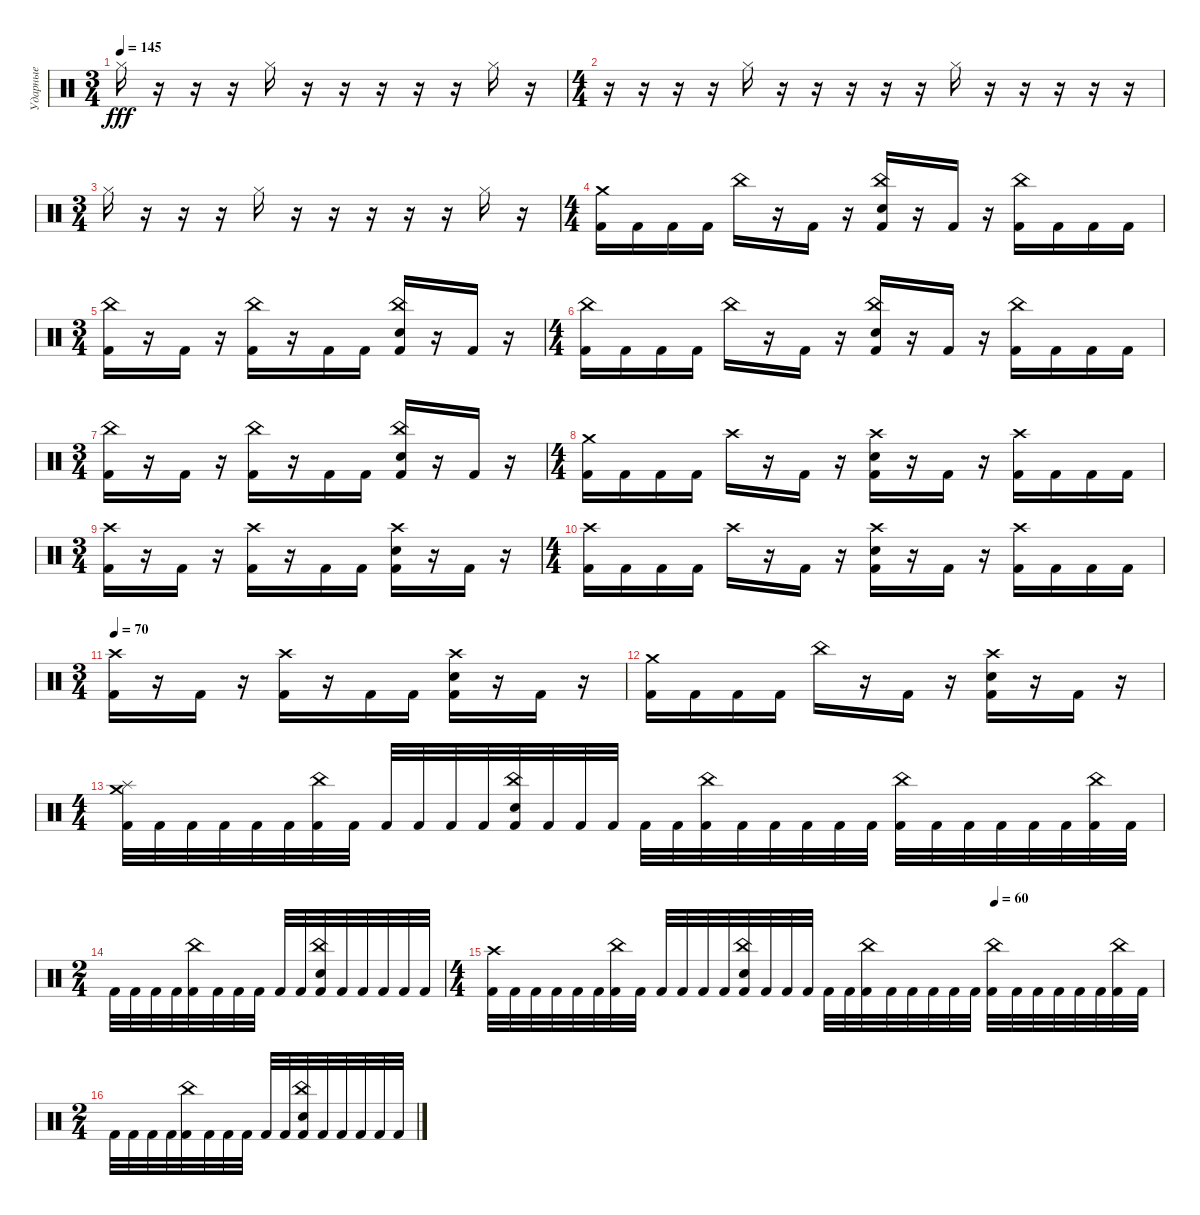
\track ("Ударные" "Ударные") {instrument percussion}
\staff {score}
\articulation defaults
\ts (3 4)
\tempo 145
\clef neutral
\ks c "Hi-Hat (closed)".16{dy fff}
r.16 r.16 r.16 "Hi-Hat (closed)".16 r.16 r.16 r.16 r.16 r.16 "Hi-Hat (closed)".16 r.16 |
\ts (4 4)
r.16 r.16 r.16 r.16 "Hi-Hat (closed)".16 r.16 r.16 r.16 r.16 r.16 "Hi-Hat (closed)".16 r.16 r.16 r.16 r.16 r.16 |
\ts (3 4)
"Hi-Hat (closed)".16 r.16 r.16 r.16 "Hi-Hat (closed)".16 r.16 r.16 r.16 r.16 r.16 "Hi-Hat (closed)".16 r.16 |
\ts (4 4)
("Crash medium (hit)" "Kick (hit) 2").16 "Kick (hit) 2".16 "Kick (hit) 2".16 "Kick (hit) 2".16 "China (hit)".16 r.16 "Kick (hit) 2".16 r.16 ("China (hit)" "Snare (hit) 2" "Kick (hit) 2").16 r.16 "Kick (hit) 2".16 r.16 ("China (hit)" "Kick (hit) 2").16 "Kick (hit) 2".16 "Kick (hit) 2".16 "Kick (hit) 2".16 |
\ts (3 4)
("China (hit)" "Kick (hit) 2").16 r.16 "Kick (hit) 2".16 r.16 ("China (hit)" "Kick (hit) 2").16 r.16 "Kick (hit) 2".16 "Kick (hit) 2".16 ("China (hit)" "Snare (hit) 2" "Kick (hit) 2").16 r.16 "Kick (hit) 2".16 r.16 |
\ts (4 4)
("China (hit)" "Kick (hit) 2").16 "Kick (hit) 2".16 "Kick (hit) 2".16 "Kick (hit) 2".16 "China (hit)".16 r.16 "Kick (hit) 2".16 r.16 ("China (hit)" "Snare (hit) 2" "Kick (hit) 2").16 r.16 "Kick (hit) 2".16 r.16 ("China (hit)" "Kick (hit) 2").16 "Kick (hit) 2".16 "Kick (hit) 2".16 "Kick (hit) 2".16 |
\ts (3 4)
("China (hit)" "Kick (hit) 2").16 r.16 "Kick (hit) 2".16 r.16 ("China (hit)" "Kick (hit) 2").16 r.16 "Kick (hit) 2".16 "Kick (hit) 2".16 ("China (hit)" "Snare (hit) 2" "Kick (hit) 2").16 r.16 "Kick (hit) 2".16 r.16 |
\ts (4 4)
("Crash medium (hit)" "Kick (hit) 2").16 "Kick (hit) 2".16 "Kick (hit) 2".16 "Kick (hit) 2".16 "Crash high (hit)".16 r.16 "Kick (hit) 2".16 r.16 ("Crash high (hit)" "Snare (hit) 2" "Kick (hit) 2").16 r.16 "Kick (hit) 2".16 r.16 ("Crash high (hit)" "Kick (hit) 2").16 "Kick (hit) 2".16 "Kick (hit) 2".16 "Kick (hit) 2".16 |
\ts (3 4)
("Crash high (hit)" "Kick (hit) 2").16 r.16 "Kick (hit) 2".16 r.16 ("Crash high (hit)" "Kick (hit) 2").16 r.16 "Kick (hit) 2".16 "Kick (hit) 2".16 ("Crash high (hit)" "Snare (hit) 2" "Kick (hit) 2").16 r.16 "Kick (hit) 2".16 r.16 |
\ts (4 4)
("Crash high (hit)" "Kick (hit) 2").16 "Kick (hit) 2".16 "Kick (hit) 2".16 "Kick (hit) 2".16 "Crash high (hit)".16 r.16 "Kick (hit) 2".16 r.16 ("Crash high (hit)" "Snare (hit) 2" "Kick (hit) 2").16 r.16 "Kick (hit) 2".16 r.16 ("Crash high (hit)" "Kick (hit) 2").16 "Kick (hit) 2".16 "Kick (hit) 2".16 "Kick (hit) 2".16 |
\ts (3 4)
\tempo 70
("Crash high (hit)" "Kick (hit) 2").16 r.16 "Kick (hit) 2".16 r.16 ("Crash high (hit)" "Kick (hit) 2").16 r.16 "Kick (hit) 2".16 "Kick (hit) 2".16 ("Crash high (hit)" "Snare (hit) 2" "Kick (hit) 2").16 r.16 "Kick (hit) 2".16 r.16 |
("Crash medium (hit)" "Kick (hit) 2").16 "Kick (hit) 2".16 "Kick (hit) 2".16 "Kick (hit) 2".16 "China (hit)".16 r.16 "Kick (hit) 2".16 r.16 ("Crash high (hit)" "Snare (hit) 2" "Kick (hit) 2").16 r.16 "Kick (hit) 2".16 r.16 |
\ts (4 4)
("Crash medium (hit)" "Splash (hit)" "Kick (hit) 2").32 "Kick (hit) 2".32 "Kick (hit) 2".32 "Kick (hit) 2".32 "Kick (hit) 2".32 "Kick (hit) 2".32 ("China (hit)" "Kick (hit) 2").32 "Kick (hit) 2".32 "Kick (hit) 2".32 "Kick (hit) 2".32 "Kick (hit) 2".32 "Kick (hit) 2".32 ("China (hit)" "Snare (hit) 2" "Kick (hit) 2").32 "Kick (hit) 2".32 "Kick (hit) 2".32 "Kick (hit) 2".32 "Kick (hit) 2".32 "Kick (hit) 2".32 ("China (hit)" "Kick (hit) 2").32 "Kick (hit) 2".32 "Kick (hit) 2".32 "Kick (hit) 2".32 "Kick (hit) 2".32 "Kick (hit) 2".32 ("China (hit)" "Kick (hit) 2").32 "Kick (hit) 2".32 "Kick (hit) 2".32 "Kick (hit) 2".32 "Kick (hit) 2".32 "Kick (hit) 2".32 ("China (hit)" "Kick (hit) 2").32 "Kick (hit) 2".32 |
\ts (2 4)
"Kick (hit) 2".32 "Kick (hit) 2".32 "Kick (hit) 2".32 "Kick (hit) 2".32 ("China (hit)" "Kick (hit) 2").32 "Kick (hit) 2".32 "Kick (hit) 2".32 "Kick (hit) 2".32 "Kick (hit) 2".32 "Kick (hit) 2".32 ("China (hit)" "Snare (hit) 2" "Kick (hit) 2").32 "Kick (hit) 2".32 "Kick (hit) 2".32 "Kick (hit) 2".32 "Kick (hit) 2".32 "Kick (hit) 2".32 |
\ts (4 4)
\tempo (60 0.75)
("Crash high (hit)" "Kick (hit) 2").32 "Kick (hit) 2".32 "Kick (hit) 2".32 "Kick (hit) 2".32 "Kick (hit) 2".32 "Kick (hit) 2".32 ("China (hit)" "Kick (hit) 2").32 "Kick (hit) 2".32 "Kick (hit) 2".32 "Kick (hit) 2".32 "Kick (hit) 2".32 "Kick (hit) 2".32 ("China (hit)" "Snare (hit) 2" "Kick (hit) 2").32 "Kick (hit) 2".32 "Kick (hit) 2".32 "Kick (hit) 2".32 "Kick (hit) 2".32 "Kick (hit) 2".32 ("China (hit)" "Kick (hit) 2").32 "Kick (hit) 2".32 "Kick (hit) 2".32 "Kick (hit) 2".32 "Kick (hit) 2".32 "Kick (hit) 2".32 ("China (hit)" "Kick (hit) 2").32 "Kick (hit) 2".32 "Kick (hit) 2".32 "Kick (hit) 2".32 "Kick (hit) 2".32 "Kick (hit) 2".32 ("China (hit)" "Kick (hit) 2").32 "Kick (hit) 2".32 |
\ts (2 4)
"Kick (hit) 2".32 "Kick (hit) 2".32 "Kick (hit) 2".32 "Kick (hit) 2".32 ("China (hit)" "Kick (hit) 2").32 "Kick (hit) 2".32 "Kick (hit) 2".32 "Kick (hit) 2".32 "Kick (hit) 2".32 "Kick (hit) 2".32 ("China (hit)" "Snare (hit) 2" "Kick (hit) 2").32 "Kick (hit) 2".32 "Kick (hit) 2".32 "Kick (hit) 2".32 "Kick (hit) 2".32 "Kick (hit) 2".32
